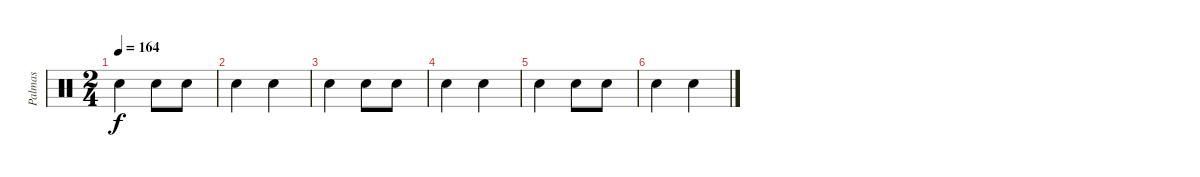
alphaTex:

\track ("Palmas" "Palmas") {instrument percussion}
\staff {score}
\articulation defaults
\ts (2 4)
\tempo 164
\clef neutral
\ks c "Hand Clap (hit)".4{dy f} "Hand Clap (hit)".8 "Hand Clap (hit)".8
|
"Hand Clap (hit)".4 "Hand Clap (hit)".4 |
"Hand Clap (hit)".4 "Hand Clap (hit)".8 "Hand Clap (hit)".8 |
"Hand Clap (hit)".4 "Hand Clap (hit)".4 |
"Hand Clap (hit)".4 "Hand Clap (hit)".8 "Hand Clap (hit)".8 |
"Hand Clap (hit)".4 "Hand Clap (hit)".4
